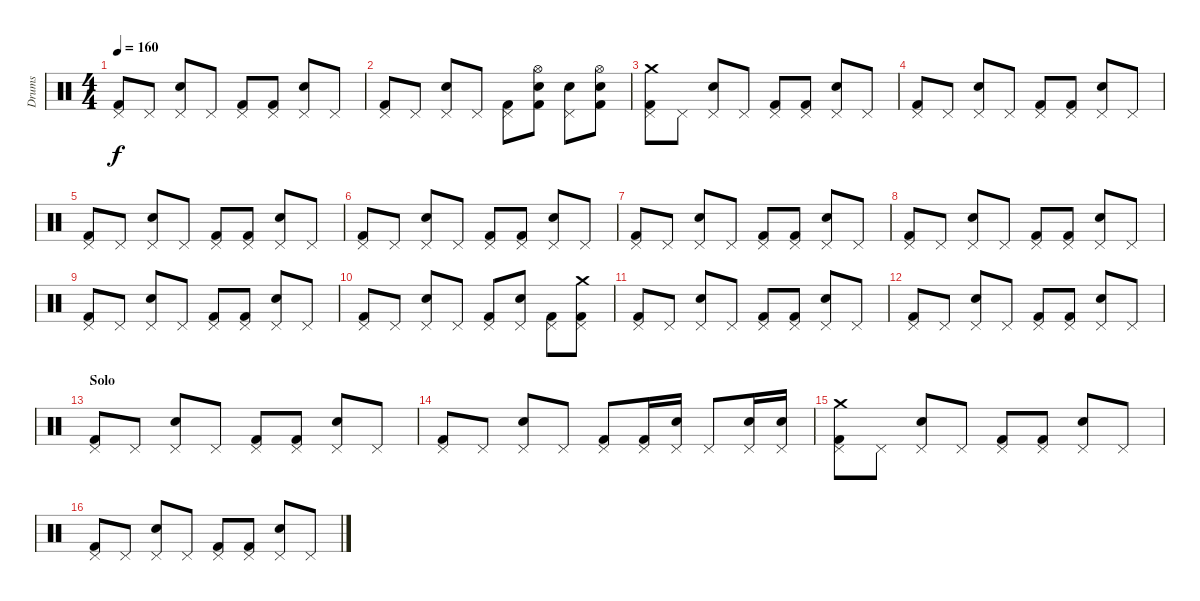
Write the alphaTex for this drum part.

\track ("Drums" "Drums") {instrument percussion}
\staff {score}
\articulation defaults
\ts (4 4)
\tempo 160
\clef neutral
\ks c
("Kick (hit) 2" "Pedal Hi-Hat (hit)").8{dy f} "Pedal Hi-Hat (hit)".8 ("Electric Snare (hit)" "Pedal Hi-Hat (hit)").8 "Pedal Hi-Hat (hit)".8 ("Kick (hit) 2" "Pedal Hi-Hat (hit)").8 ("Kick (hit) 2" "Pedal Hi-Hat (hit)").8 ("Electric Snare (hit)" "Pedal Hi-Hat (hit)").8 "Pedal Hi-Hat (hit)".8 |
("Kick (hit) 2" "Pedal Hi-Hat (hit)").8 "Pedal Hi-Hat (hit)".8 ("Electric Snare (hit)" "Pedal Hi-Hat (hit)").8 "Pedal Hi-Hat (hit)".8 ("Kick (hit) 2" "Pedal Hi-Hat (hit)").8 ("Kick (hit) 2" "Electric Snare (hit)" "Hi-Hat (open)").8 ("Electric Snare (hit)" "Pedal Hi-Hat (hit)").8 ("Kick (hit) 2" "Electric Snare (hit)" "Hi-Hat (open)").8 |
("Kick (hit) 2" "Pedal Hi-Hat (hit)" "Crash medium (hit)").8 "Pedal Hi-Hat (hit)".8 ("Electric Snare (hit)" "Pedal Hi-Hat (hit)").8 "Pedal Hi-Hat (hit)".8 ("Kick (hit) 2" "Pedal Hi-Hat (hit)").8 ("Kick (hit) 2" "Pedal Hi-Hat (hit)").8 ("Electric Snare (hit)" "Pedal Hi-Hat (hit)").8 "Pedal Hi-Hat (hit)".8 |
("Kick (hit) 2" "Pedal Hi-Hat (hit)").8 "Pedal Hi-Hat (hit)".8 ("Electric Snare (hit)" "Pedal Hi-Hat (hit)").8 "Pedal Hi-Hat (hit)".8 ("Kick (hit) 2" "Pedal Hi-Hat (hit)").8 ("Kick (hit) 2" "Pedal Hi-Hat (hit)").8 ("Electric Snare (hit)" "Pedal Hi-Hat (hit)").8 "Pedal Hi-Hat (hit)".8 |
("Kick (hit) 2" "Pedal Hi-Hat (hit)").8 "Pedal Hi-Hat (hit)".8 ("Electric Snare (hit)" "Pedal Hi-Hat (hit)").8 "Pedal Hi-Hat (hit)".8 ("Kick (hit) 2" "Pedal Hi-Hat (hit)").8 ("Kick (hit) 2" "Pedal Hi-Hat (hit)").8 ("Electric Snare (hit)" "Pedal Hi-Hat (hit)").8 "Pedal Hi-Hat (hit)".8 |
("Kick (hit) 2" "Pedal Hi-Hat (hit)").8 "Pedal Hi-Hat (hit)".8 ("Electric Snare (hit)" "Pedal Hi-Hat (hit)").8 "Pedal Hi-Hat (hit)".8 ("Kick (hit) 2" "Pedal Hi-Hat (hit)").8 ("Kick (hit) 2" "Pedal Hi-Hat (hit)").8 ("Electric Snare (hit)" "Pedal Hi-Hat (hit)").8 "Pedal Hi-Hat (hit)".8 |
("Kick (hit) 2" "Pedal Hi-Hat (hit)").8 "Pedal Hi-Hat (hit)".8 ("Electric Snare (hit)" "Pedal Hi-Hat (hit)").8 "Pedal Hi-Hat (hit)".8 ("Kick (hit) 2" "Pedal Hi-Hat (hit)").8 ("Kick (hit) 2" "Pedal Hi-Hat (hit)").8 ("Electric Snare (hit)" "Pedal Hi-Hat (hit)").8 "Pedal Hi-Hat (hit)".8 |
("Kick (hit) 2" "Pedal Hi-Hat (hit)").8 "Pedal Hi-Hat (hit)".8 ("Electric Snare (hit)" "Pedal Hi-Hat (hit)").8 "Pedal Hi-Hat (hit)".8 ("Kick (hit) 2" "Pedal Hi-Hat (hit)").8 ("Kick (hit) 2" "Pedal Hi-Hat (hit)").8 ("Electric Snare (hit)" "Pedal Hi-Hat (hit)").8 "Pedal Hi-Hat (hit)".8 |
("Kick (hit) 2" "Pedal Hi-Hat (hit)").8 "Pedal Hi-Hat (hit)".8 ("Electric Snare (hit)" "Pedal Hi-Hat (hit)").8 "Pedal Hi-Hat (hit)".8 ("Kick (hit) 2" "Pedal Hi-Hat (hit)").8 ("Kick (hit) 2" "Pedal Hi-Hat (hit)").8 ("Electric Snare (hit)" "Pedal Hi-Hat (hit)").8 "Pedal Hi-Hat (hit)".8 |
("Kick (hit) 2" "Pedal Hi-Hat (hit)").8 "Pedal Hi-Hat (hit)".8 ("Electric Snare (hit)" "Pedal Hi-Hat (hit)").8 "Pedal Hi-Hat (hit)".8 ("Kick (hit) 2" "Pedal Hi-Hat (hit)").8 ("Pedal Hi-Hat (hit)" "Electric Snare (hit)").8 ("Kick (hit) 2" "Pedal Hi-Hat (hit)").8 ("Kick (hit) 2" "Pedal Hi-Hat (hit)" "Crash medium (hit)").8 |
("Kick (hit) 2" "Pedal Hi-Hat (hit)").8 "Pedal Hi-Hat (hit)".8 ("Electric Snare (hit)" "Pedal Hi-Hat (hit)").8 "Pedal Hi-Hat (hit)".8 ("Kick (hit) 2" "Pedal Hi-Hat (hit)").8 ("Kick (hit) 2" "Pedal Hi-Hat (hit)").8 ("Electric Snare (hit)" "Pedal Hi-Hat (hit)").8 "Pedal Hi-Hat (hit)".8 |
("Kick (hit) 2" "Pedal Hi-Hat (hit)").8 "Pedal Hi-Hat (hit)".8 ("Electric Snare (hit)" "Pedal Hi-Hat (hit)").8 "Pedal Hi-Hat (hit)".8 ("Kick (hit) 2" "Pedal Hi-Hat (hit)").8 ("Kick (hit) 2" "Pedal Hi-Hat (hit)").8 ("Electric Snare (hit)" "Pedal Hi-Hat (hit)").8 "Pedal Hi-Hat (hit)".8 |
\section ("" "Solo")
("Kick (hit) 2" "Pedal Hi-Hat (hit)").8 "Pedal Hi-Hat (hit)".8 ("Electric Snare (hit)" "Pedal Hi-Hat (hit)").8 "Pedal Hi-Hat (hit)".8 ("Kick (hit) 2" "Pedal Hi-Hat (hit)").8 ("Kick (hit) 2" "Pedal Hi-Hat (hit)").8 ("Electric Snare (hit)" "Pedal Hi-Hat (hit)").8 "Pedal Hi-Hat (hit)".8 |
("Kick (hit) 2" "Pedal Hi-Hat (hit)").8 "Pedal Hi-Hat (hit)".8 ("Electric Snare (hit)" "Pedal Hi-Hat (hit)").8 "Pedal Hi-Hat (hit)".8 ("Kick (hit) 2" "Pedal Hi-Hat (hit)").8 ("Kick (hit) 2" "Pedal Hi-Hat (hit)").16 ("Electric Snare (hit)" "Pedal Hi-Hat (hit)").16 "Pedal Hi-Hat (hit)".8 ("Electric Snare (hit)" "Pedal Hi-Hat (hit)").16 ("Electric Snare (hit)" "Pedal Hi-Hat (hit)").16 |
("Kick (hit) 2" "Pedal Hi-Hat (hit)" "Crash medium (hit)").8 "Pedal Hi-Hat (hit)".8 ("Electric Snare (hit)" "Pedal Hi-Hat (hit)").8 "Pedal Hi-Hat (hit)".8 ("Kick (hit) 2" "Pedal Hi-Hat (hit)").8 ("Kick (hit) 2" "Pedal Hi-Hat (hit)").8 ("Electric Snare (hit)" "Pedal Hi-Hat (hit)").8 "Pedal Hi-Hat (hit)".8 |
("Kick (hit) 2" "Pedal Hi-Hat (hit)").8 "Pedal Hi-Hat (hit)".8 ("Electric Snare (hit)" "Pedal Hi-Hat (hit)").8 "Pedal Hi-Hat (hit)".8 ("Kick (hit) 2" "Pedal Hi-Hat (hit)").8 ("Kick (hit) 2" "Pedal Hi-Hat (hit)").8 ("Electric Snare (hit)" "Pedal Hi-Hat (hit)").8 "Pedal Hi-Hat (hit)".8
